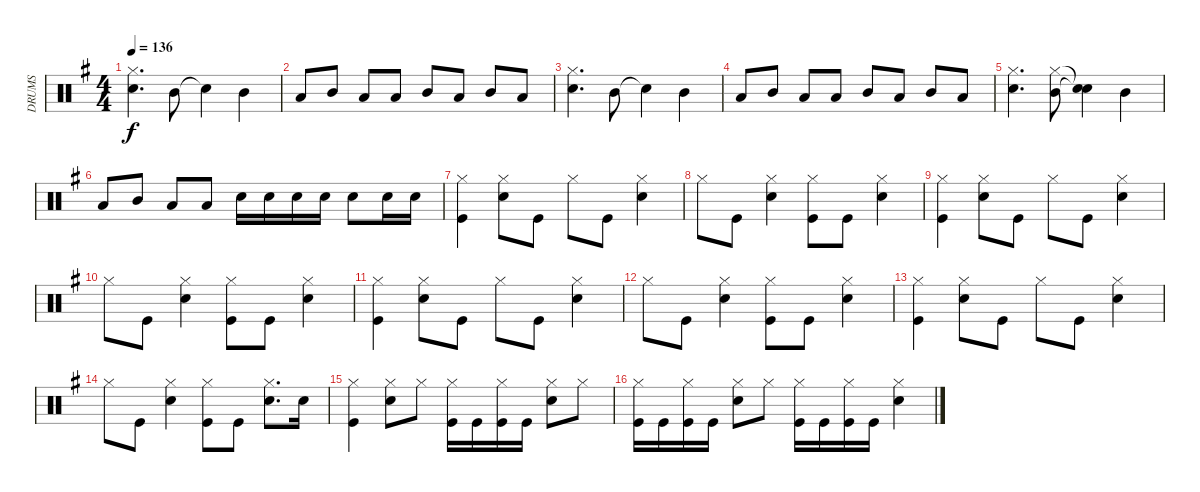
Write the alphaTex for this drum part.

\track ("DRUMS" "DRUMS") {instrument percussion}
\staff {score}
\articulation defaults
\ts (4 4)
\tempo 136
\clef neutral
\ks eminor
("Hi-Hat (closed)" "Snare (hit) 2").4{d dy f} "Mid Tom (hit)".8 "Snare (hit)"{t}.4 "Mid Tom (hit)".4 |
"Low Tom (hit)".8 "Mid Tom (hit)".8 "Low Tom (hit)".8 "Low Tom (hit)".8 "Mid Tom (hit)".8 "Low Tom (hit)".8 "Mid Tom (hit)".8 "Low Tom (hit)".8 |
("Hi-Hat (closed)" "Snare (hit) 2").4{d} "Mid Tom (hit)".8 "Snare (hit)"{t}.4 "Mid Tom (hit)".4 |
"Low Tom (hit)".8 "Mid Tom (hit)".8 "Low Tom (hit)".8 "Low Tom (hit)".8 "Mid Tom (hit)".8 "Low Tom (hit)".8 "Mid Tom (hit)".8 "Low Tom (hit)".8 |
("Hi-Hat (closed)" "Snare (hit) 2").4{d} ("Hi-Hat (closed)" "Mid Tom (hit)").8 ("Snare (hit)"{t} "Snare (hit)"{t}).4 "Mid Tom (hit)".4 |
"Low Tom (hit)".8 "Mid Tom (hit)".8 "Low Tom (hit)".8 "Low Tom (hit)".8 "Snare (hit) 2".16 "Snare (hit) 2".16 "Snare (hit) 2".16 "Snare (hit) 2".16 "Snare (hit) 2".8 "Snare (hit) 2".16 "Snare (hit) 2".16 |
("Hi-Hat (closed)" "Kick (hit)").4 ("Hi-Hat (closed)" "Snare (hit) 2").8 "Kick (hit)".8 "Hi-Hat (closed)".8 "Kick (hit)".8 ("Hi-Hat (closed)" "Snare (hit) 2").4 |
"Hi-Hat (closed)".8 "Kick (hit)".8 ("Hi-Hat (closed)" "Snare (hit) 2").4 ("Hi-Hat (closed)" "Kick (hit)").8 "Kick (hit)".8 ("Hi-Hat (closed)" "Snare (hit) 2").4 |
("Hi-Hat (closed)" "Kick (hit)").4 ("Hi-Hat (closed)" "Snare (hit) 2").8 "Kick (hit)".8 "Hi-Hat (closed)".8 "Kick (hit)".8 ("Hi-Hat (closed)" "Snare (hit) 2").4 |
"Hi-Hat (closed)".8 "Kick (hit)".8 ("Hi-Hat (closed)" "Snare (hit) 2").4 ("Hi-Hat (closed)" "Kick (hit)").8 "Kick (hit)".8 ("Hi-Hat (closed)" "Snare (hit) 2").4 |
("Hi-Hat (closed)" "Kick (hit)").4 ("Hi-Hat (closed)" "Snare (hit) 2").8 "Kick (hit)".8 "Hi-Hat (closed)".8 "Kick (hit)".8 ("Hi-Hat (closed)" "Snare (hit) 2").4 |
"Hi-Hat (closed)".8 "Kick (hit)".8 ("Hi-Hat (closed)" "Snare (hit) 2").4 ("Hi-Hat (closed)" "Kick (hit)").8 "Kick (hit)".8 ("Hi-Hat (closed)" "Snare (hit) 2").4 |
("Hi-Hat (closed)" "Kick (hit)").4 ("Hi-Hat (closed)" "Snare (hit) 2").8 "Kick (hit)".8 "Hi-Hat (closed)".8 "Kick (hit)".8 ("Hi-Hat (closed)" "Snare (hit) 2").4 |
"Hi-Hat (closed)".8 "Kick (hit)".8 ("Hi-Hat (closed)" "Snare (hit) 2").4 ("Hi-Hat (closed)" "Kick (hit)").8 "Kick (hit)".8 ("Hi-Hat (closed)" "Snare (hit) 2").8{d} "Snare (hit) 2".16 |
("Hi-Hat (closed)" "Kick (hit)").4 ("Hi-Hat (closed)" "Snare (hit) 2").8 "Hi-Hat (closed)".8 ("Hi-Hat (closed)" "Kick (hit)").16 "Kick (hit)".16 ("Hi-Hat (closed)" "Kick (hit)").16 "Kick (hit)".16 ("Hi-Hat (closed)" "Snare (hit) 2").8 "Hi-Hat (closed)".8 |
("Hi-Hat (closed)" "Kick (hit)").16 "Kick (hit)".16 ("Hi-Hat (closed)" "Kick (hit)").16 "Kick (hit)".16 ("Hi-Hat (closed)" "Snare (hit) 2").8 "Hi-Hat (closed)".8 ("Hi-Hat (closed)" "Kick (hit)").16 "Kick (hit)".16 ("Hi-Hat (closed)" "Kick (hit)").16 "Kick (hit)".16 ("Hi-Hat (closed)" "Snare (hit) 2").4
